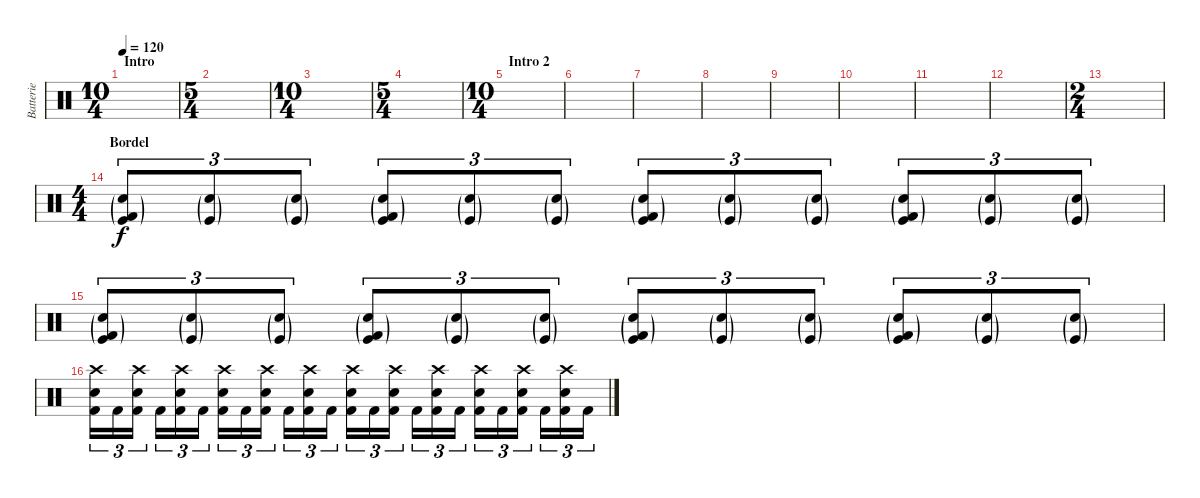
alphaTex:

\track ("Batterie" "Batterie") {instrument percussion}
\staff {score}
\articulation defaults
\ts (10 4)
\section ("" "Intro")
\tempo 120
\clef neutral
\ks c
|
\ts (5 4)
|
\ts (10 4)
|
\ts (5 4)
|
\ts (10 4)
\section ("" "Intro 2")
|
|
|
|
|
|
|
|
\ts (2 4)
|
\ts (4 4)
\section ("" "Bordel")
("Snare (hit) 2"{g} "Kick (hit)"{g} "Kick (hit) 2"{g}).8{tu (3 2)} ("Snare (hit) 2"{g} "Kick (hit)"{g}).8{tu (3 2)} ("Snare (hit) 2"{g} "Kick (hit)"{g}).8{tu (3 2)} ("Snare (hit) 2"{g} "Kick (hit)"{g} "Kick (hit) 2"{g}).8{tu (3 2)} ("Snare (hit) 2"{g} "Kick (hit)"{g}).8{tu (3 2)} ("Snare (hit) 2"{g} "Kick (hit)"{g}).8{tu (3 2)} ("Snare (hit) 2"{g} "Kick (hit)"{g} "Kick (hit) 2"{g}).8{tu (3 2)} ("Snare (hit) 2"{g} "Kick (hit)"{g}).8{tu (3 2)} ("Snare (hit) 2"{g} "Kick (hit)"{g}).8{tu (3 2)} ("Snare (hit) 2"{g} "Kick (hit)"{g} "Kick (hit) 2"{g}).8{tu (3 2)} ("Snare (hit) 2"{g} "Kick (hit)"{g}).8{tu (3 2)} ("Snare (hit) 2"{g} "Kick (hit)"{g}).8{tu (3 2)} |
("Snare (hit) 2"{g} "Kick (hit)"{g} "Kick (hit) 2"{g}).8{tu (3 2)} ("Snare (hit) 2"{g} "Kick (hit)"{g}).8{tu (3 2)} ("Snare (hit) 2"{g} "Kick (hit)"{g}).8{tu (3 2)} ("Snare (hit) 2"{g} "Kick (hit)"{g} "Kick (hit) 2"{g}).8{tu (3 2)} ("Snare (hit) 2"{g} "Kick (hit)"{g}).8{tu (3 2)} ("Snare (hit) 2"{g} "Kick (hit)"{g}).8{tu (3 2)} ("Snare (hit) 2"{g} "Kick (hit)"{g} "Kick (hit) 2"{g}).8{tu (3 2)} ("Snare (hit) 2"{g} "Kick (hit)"{g}).8{tu (3 2)} ("Snare (hit) 2"{g} "Kick (hit)"{g}).8{tu (3 2)} ("Snare (hit) 2"{g} "Kick (hit)"{g} "Kick (hit) 2"{g}).8{tu (3 2)} ("Snare (hit) 2"{g} "Kick (hit)"{g}).8{tu (3 2)} ("Snare (hit) 2"{g} "Kick (hit)"{g}).8{tu (3 2)} |
("Crash high (hit)" "Snare (hit) 2" "Kick (hit) 2").16{tu (3 2) dy f} "Kick (hit) 2".16{tu (3 2)} ("Crash high (hit)" "Snare (hit) 2" "Kick (hit) 2").16{tu (3 2)} "Kick (hit) 2".16{tu (3 2)} ("Crash high (hit)" "Snare (hit) 2" "Kick (hit) 2").16{tu (3 2)} "Kick (hit) 2".16{tu (3 2)} ("Crash high (hit)" "Snare (hit) 2" "Kick (hit) 2").16{tu (3 2)} "Kick (hit) 2".16{tu (3 2)} ("Crash high (hit)" "Snare (hit) 2" "Kick (hit) 2").16{tu (3 2)} "Kick (hit) 2".16{tu (3 2)} ("Crash high (hit)" "Snare (hit) 2" "Kick (hit) 2").16{tu (3 2)} "Kick (hit) 2".16{tu (3 2)} ("Crash high (hit)" "Snare (hit) 2" "Kick (hit) 2").16{tu (3 2)} "Kick (hit) 2".16{tu (3 2)} ("Crash high (hit)" "Snare (hit) 2" "Kick (hit) 2").16{tu (3 2)} "Kick (hit) 2".16{tu (3 2)} ("Crash high (hit)" "Snare (hit) 2" "Kick (hit) 2").16{tu (3 2)} "Kick (hit) 2".16{tu (3 2)} ("Crash high (hit)" "Snare (hit) 2" "Kick (hit) 2").16{tu (3 2)} "Kick (hit) 2".16{tu (3 2)} ("Crash high (hit)" "Snare (hit) 2" "Kick (hit) 2").16{tu (3 2)} "Kick (hit) 2".16{tu (3 2)} ("Crash high (hit)" "Snare (hit) 2" "Kick (hit) 2").16{tu (3 2)} "Kick (hit) 2".16{tu (3 2)}
